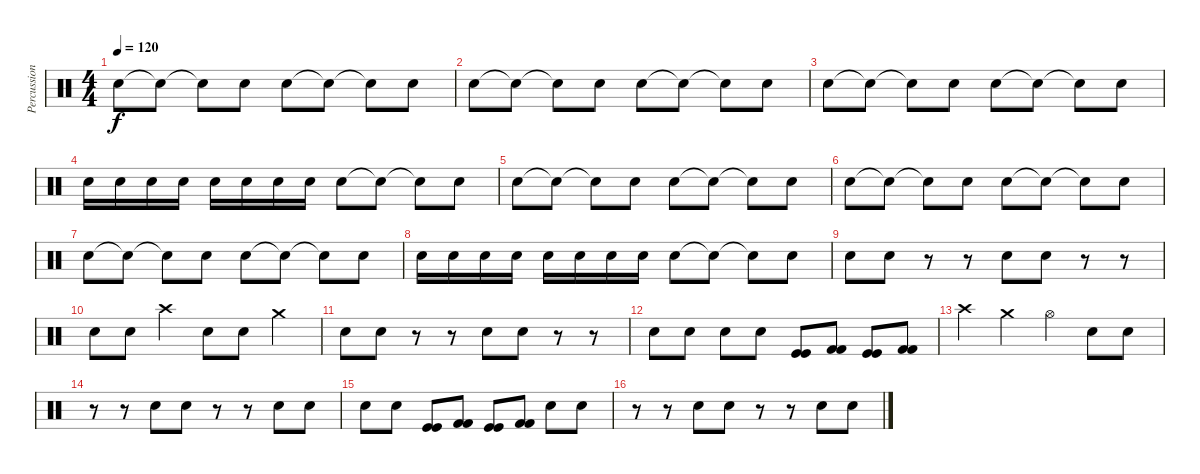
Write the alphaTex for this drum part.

\track ("Percussions" "Percussion") {instrument percussion}
\staff {score}
\articulation defaults
\ts (4 4)
\tempo 120
\clef neutral
\ks c "Electric Snare (hit)".8{dy f} "Snare (hit)"{t}.8 "Snare (hit)"{t}.8 "Snare (hit) 2".8 "Electric Snare (hit)".8 "Snare (hit)"{t}.8 "Snare (hit)"{t}.8 "Snare (hit) 2".8
|
"Electric Snare (hit)".8 "Snare (hit)"{t}.8 "Snare (hit)"{t}.8 "Snare (hit) 2".8 "Electric Snare (hit)".8 "Snare (hit)"{t}.8 "Snare (hit)"{t}.8 "Snare (hit) 2".8 |
"Electric Snare (hit)".8 "Snare (hit)"{t}.8 "Snare (hit)"{t}.8 "Snare (hit) 2".8 "Electric Snare (hit)".8 "Snare (hit)"{t}.8 "Snare (hit)"{t}.8 "Snare (hit) 2".8 |
"Electric Snare (hit)".16 "Electric Snare (hit)".16 "Electric Snare (hit)".16 "Electric Snare (hit)".16 "Electric Snare (hit)".16 "Electric Snare (hit)".16 "Electric Snare (hit)".16 "Electric Snare (hit)".16 "Electric Snare (hit)".8 "Snare (hit)"{t}.8 "Snare (hit)"{t}.8 "Snare (hit) 2".8 |
"Electric Snare (hit)".8 "Snare (hit)"{t}.8 "Snare (hit)"{t}.8 "Snare (hit) 2".8 "Electric Snare (hit)".8 "Snare (hit)"{t}.8 "Snare (hit)"{t}.8 "Snare (hit) 2".8 |
"Electric Snare (hit)".8 "Snare (hit)"{t}.8 "Snare (hit)"{t}.8 "Snare (hit) 2".8 "Electric Snare (hit)".8 "Snare (hit)"{t}.8 "Snare (hit)"{t}.8 "Snare (hit) 2".8 |
"Electric Snare (hit)".8 "Snare (hit)"{t}.8 "Snare (hit)"{t}.8 "Snare (hit) 2".8 "Electric Snare (hit)".8 "Snare (hit)"{t}.8 "Snare (hit)"{t}.8 "Snare (hit) 2".8 |
"Electric Snare (hit)".16 "Electric Snare (hit)".16 "Electric Snare (hit)".16 "Electric Snare (hit)".16 "Electric Snare (hit)".16 "Electric Snare (hit)".16 "Electric Snare (hit)".16 "Electric Snare (hit)".16 "Electric Snare (hit)".8 "Snare (hit)"{t}.8 "Snare (hit)"{t}.8 "Snare (hit) 2".8 |
"Electric Snare (hit)".8 "Snare (hit) 2".8 r.8 r.8 "Electric Snare (hit)".8 "Snare (hit) 2".8 r.8 r.8 |
"Electric Snare (hit)".8 "Snare (hit) 2".8 "Crash high (hit)".4 "Electric Snare (hit)".8 "Snare (hit) 2".8 "Crash medium (hit)".4 |
"Electric Snare (hit)".8 "Snare (hit) 2".8 r.8 r.8 "Electric Snare (hit)".8 "Snare (hit) 2".8 r.8 r.8 |
"Electric Snare (hit)".8 "Snare (hit) 2".8 "Electric Snare (hit)".8 "Snare (hit) 2".8 ("Kick (hit)" "Kick (hit)").8 ("Kick (hit) 2" "Kick (hit) 2").8 ("Kick (hit)" "Kick (hit)").8 ("Kick (hit) 2" "Kick (hit) 2").8 |
"Crash high (hit)".4 "Crash medium (hit)".4 "Hi-Hat (open)".4 "Electric Snare (hit)".8 "Snare (hit) 2".8 |
r.8 r.8 "Electric Snare (hit)".8 "Snare (hit) 2".8 r.8 r.8 "Electric Snare (hit)".8 "Snare (hit) 2".8 |
"Electric Snare (hit)".8 "Snare (hit) 2".8 ("Kick (hit)" "Kick (hit)").8 ("Kick (hit) 2" "Kick (hit) 2").8 ("Kick (hit)" "Kick (hit)").8 ("Kick (hit) 2" "Kick (hit) 2").8 "Electric Snare (hit)".8 "Snare (hit) 2".8 |
r.8 r.8 "Electric Snare (hit)".8 "Snare (hit) 2".8 r.8 r.8 "Electric Snare (hit)".8 "Snare (hit) 2".8
